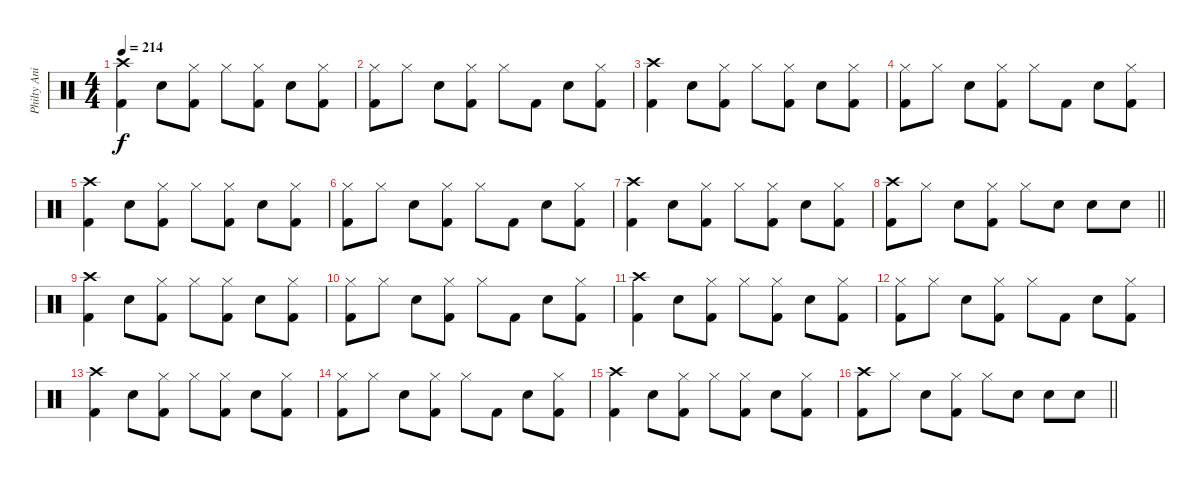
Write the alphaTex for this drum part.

\track ("Philty Animal" "Philty Ani") {instrument percussion}
\staff {score}
\articulation defaults
\ts (4 4)
\tempo 214
\clef neutral
\ks c
("Kick (hit) 2" "Crash high (hit)").4{dy f} "Snare (hit) 2".8 ("Kick (hit) 2" "Hi-Hat (closed)").8 "Hi-Hat (closed)".8 ("Kick (hit) 2" "Hi-Hat (closed)").8 "Snare (hit) 2".8 ("Kick (hit) 2" "Hi-Hat (closed)").8 |
("Kick (hit) 2" "Hi-Hat (closed)").8 "Hi-Hat (closed)".8 "Snare (hit) 2".8 ("Hi-Hat (closed)" "Kick (hit) 2").8 "Hi-Hat (closed)".8 "Kick (hit) 2".8 "Snare (hit) 2".8 ("Kick (hit) 2" "Hi-Hat (closed)").8 |
("Kick (hit) 2" "Crash high (hit)").4 "Snare (hit) 2".8 ("Kick (hit) 2" "Hi-Hat (closed)").8 "Hi-Hat (closed)".8 ("Kick (hit) 2" "Hi-Hat (closed)").8 "Snare (hit) 2".8 ("Kick (hit) 2" "Hi-Hat (closed)").8 |
("Kick (hit) 2" "Hi-Hat (closed)").8 "Hi-Hat (closed)".8 "Snare (hit) 2".8 ("Hi-Hat (closed)" "Kick (hit) 2").8 "Hi-Hat (closed)".8 "Kick (hit) 2".8 "Snare (hit) 2".8 ("Kick (hit) 2" "Hi-Hat (closed)").8 |
("Kick (hit) 2" "Crash high (hit)").4 "Snare (hit) 2".8 ("Kick (hit) 2" "Hi-Hat (closed)").8 "Hi-Hat (closed)".8 ("Kick (hit) 2" "Hi-Hat (closed)").8 "Snare (hit) 2".8 ("Kick (hit) 2" "Hi-Hat (closed)").8 |
("Kick (hit) 2" "Hi-Hat (closed)").8 "Hi-Hat (closed)".8 "Snare (hit) 2".8 ("Hi-Hat (closed)" "Kick (hit) 2").8 "Hi-Hat (closed)".8 "Kick (hit) 2".8 "Snare (hit) 2".8 ("Kick (hit) 2" "Hi-Hat (closed)").8 |
("Kick (hit) 2" "Crash high (hit)").4 "Snare (hit) 2".8 ("Kick (hit) 2" "Hi-Hat (closed)").8 "Hi-Hat (closed)".8 ("Kick (hit) 2" "Hi-Hat (closed)").8 "Snare (hit) 2".8 ("Kick (hit) 2" "Hi-Hat (closed)").8 |
\barLineRight lightlight
("Crash high (hit)" "Kick (hit) 2").8 "Hi-Hat (closed)".8 "Snare (hit) 2".8 ("Hi-Hat (closed)" "Kick (hit) 2").8 "Hi-Hat (closed)".8 "Snare (hit) 2".8 "Snare (hit) 2".8 "Snare (hit) 2".8 |
("Kick (hit) 2" "Crash high (hit)").4 "Snare (hit) 2".8 ("Kick (hit) 2" "Hi-Hat (closed)").8 "Hi-Hat (closed)".8 ("Kick (hit) 2" "Hi-Hat (closed)").8 "Snare (hit) 2".8 ("Kick (hit) 2" "Hi-Hat (closed)").8 |
("Kick (hit) 2" "Hi-Hat (closed)").8 "Hi-Hat (closed)".8 "Snare (hit) 2".8 ("Hi-Hat (closed)" "Kick (hit) 2").8 "Hi-Hat (closed)".8 "Kick (hit) 2".8 "Snare (hit) 2".8 ("Kick (hit) 2" "Hi-Hat (closed)").8 |
("Kick (hit) 2" "Crash high (hit)").4 "Snare (hit) 2".8 ("Kick (hit) 2" "Hi-Hat (closed)").8 "Hi-Hat (closed)".8 ("Kick (hit) 2" "Hi-Hat (closed)").8 "Snare (hit) 2".8 ("Kick (hit) 2" "Hi-Hat (closed)").8 |
("Kick (hit) 2" "Hi-Hat (closed)").8 "Hi-Hat (closed)".8 "Snare (hit) 2".8 ("Hi-Hat (closed)" "Kick (hit) 2").8 "Hi-Hat (closed)".8 "Kick (hit) 2".8 "Snare (hit) 2".8 ("Kick (hit) 2" "Hi-Hat (closed)").8 |
("Kick (hit) 2" "Crash high (hit)").4 "Snare (hit) 2".8 ("Kick (hit) 2" "Hi-Hat (closed)").8 "Hi-Hat (closed)".8 ("Kick (hit) 2" "Hi-Hat (closed)").8 "Snare (hit) 2".8 ("Kick (hit) 2" "Hi-Hat (closed)").8 |
("Kick (hit) 2" "Hi-Hat (closed)").8 "Hi-Hat (closed)".8 "Snare (hit) 2".8 ("Hi-Hat (closed)" "Kick (hit) 2").8 "Hi-Hat (closed)".8 "Kick (hit) 2".8 "Snare (hit) 2".8 ("Kick (hit) 2" "Hi-Hat (closed)").8 |
("Kick (hit) 2" "Crash high (hit)").4 "Snare (hit) 2".8 ("Kick (hit) 2" "Hi-Hat (closed)").8 "Hi-Hat (closed)".8 ("Kick (hit) 2" "Hi-Hat (closed)").8 "Snare (hit) 2".8 ("Kick (hit) 2" "Hi-Hat (closed)").8 |
\barLineRight lightlight
("Crash high (hit)" "Kick (hit) 2").8 "Hi-Hat (closed)".8 "Snare (hit) 2".8 ("Hi-Hat (closed)" "Kick (hit) 2").8 "Hi-Hat (closed)".8 "Snare (hit) 2".8 "Snare (hit) 2".8 "Snare (hit) 2".8
